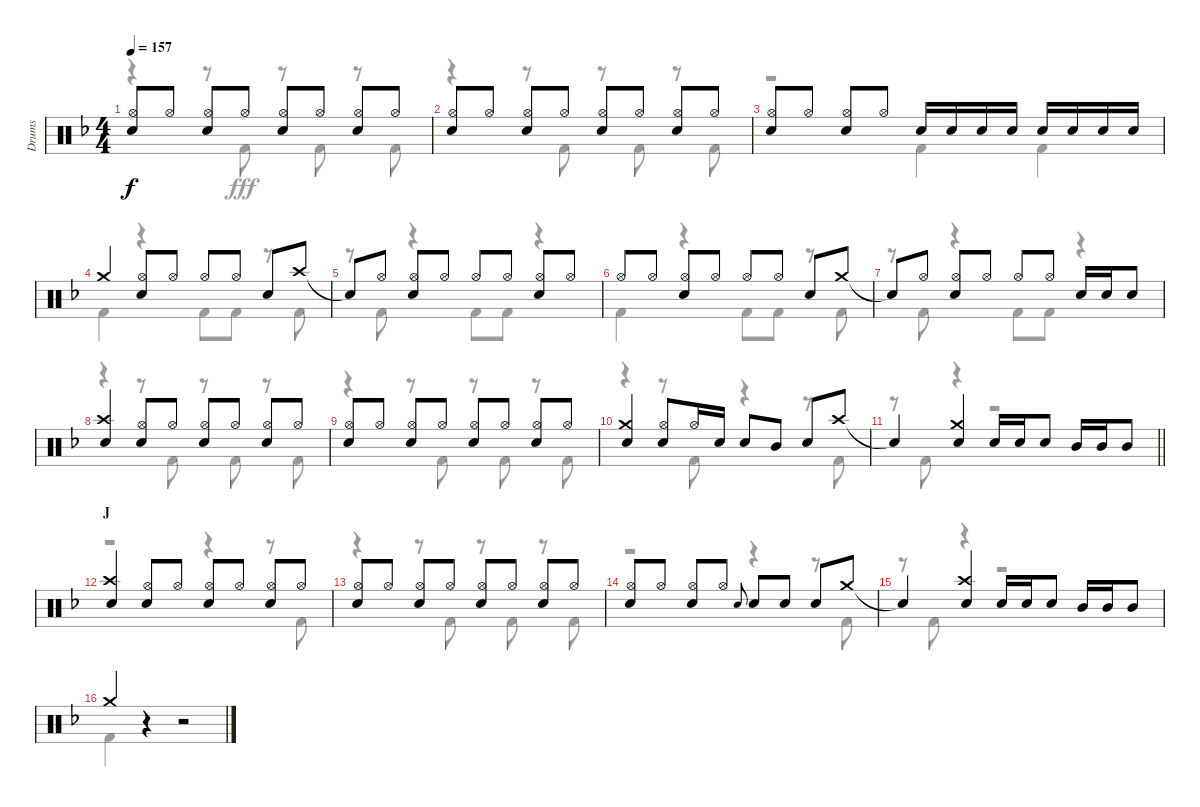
\track ("Drums" "Drums") {instrument percussion}
\staff {score}
\articulation defaults
\voice
\ts (4 4)
\tempo 157
\clef neutral
\ks f
("Hi-Hat (open)" "Snare (hit) 2").8{dy f} "Hi-Hat (open)".8 ("Hi-Hat (open)" "Snare (hit) 2").8 "Hi-Hat (open)".8 ("Hi-Hat (open)" "Snare (hit) 2").8 "Hi-Hat (open)".8 ("Hi-Hat (open)" "Snare (hit) 2").8 "Hi-Hat (open)".8 |
("Hi-Hat (open)" "Snare (hit) 2").8 "Hi-Hat (open)".8 ("Hi-Hat (open)" "Snare (hit) 2").8 "Hi-Hat (open)".8 ("Hi-Hat (open)" "Snare (hit) 2").8 "Hi-Hat (open)".8 ("Hi-Hat (open)" "Snare (hit) 2").8 "Hi-Hat (open)".8 |
("Hi-Hat (open)" "Snare (hit) 2").8 "Hi-Hat (open)".8 ("Hi-Hat (open)" "Snare (hit) 2").8 "Hi-Hat (open)".8 "Snare (hit) 2".16 "Snare (hit) 2".16 "Snare (hit) 2".16 "Snare (hit) 2".16 "Snare (hit) 2".16 "Snare (hit) 2".16 "Snare (hit) 2".16 "Snare (hit) 2".16 |
"Crash medium (hit)".4 ("Hi-Hat (open)" "Snare (hit) 2").8 "Hi-Hat (open)".8 "Hi-Hat (open)".8 "Hi-Hat (open)".8 "Snare (hit) 2".8 "Crash high (hit)".8 |
"Snare (hit)"{t}.8 "Hi-Hat (open)".8 ("Hi-Hat (open)" "Snare (hit) 2").8 "Hi-Hat (open)".8 "Hi-Hat (open)".8 "Hi-Hat (open)".8 ("Hi-Hat (open)" "Snare (hit) 2").8 "Hi-Hat (open)".8 |
"Hi-Hat (open)".8 "Hi-Hat (open)".8 ("Hi-Hat (open)" "Snare (hit) 2").8 "Hi-Hat (open)".8 "Hi-Hat (open)".8 "Hi-Hat (open)".8 "Snare (hit) 2".8 "Crash medium (hit)".8 |
"Snare (hit)"{t}.8 "Hi-Hat (open)".8 ("Hi-Hat (open)" "Snare (hit) 2").8 "Hi-Hat (open)".8 "Hi-Hat (open)".8 "Hi-Hat (open)".8 "Snare (hit) 2".16 "Snare (hit) 2".16 "Snare (hit) 2".8 |
("Crash high (hit)" "Snare (hit) 2").4 ("Hi-Hat (open)" "Snare (hit) 2").8 "Hi-Hat (open)".8 ("Hi-Hat (open)" "Snare (hit) 2").8 "Hi-Hat (open)".8 ("Hi-Hat (open)" "Snare (hit) 2").8 "Hi-Hat (open)".8 |
("Hi-Hat (open)" "Snare (hit) 2").8 "Hi-Hat (open)".8 ("Hi-Hat (open)" "Snare (hit) 2").8 "Hi-Hat (open)".8 ("Hi-Hat (open)" "Snare (hit) 2").8 "Hi-Hat (open)".8 ("Hi-Hat (open)" "Snare (hit) 2").8 "Hi-Hat (open)".8 |
("Crash medium (hit)" "Snare (hit) 2").4 ("Hi-Hat (open)" "Snare (hit) 2").8 "Hi-Hat (open)".16 "Snare (hit) 2".16 "Snare (hit) 2".8 "Mid Tom (hit)".8 "Snare (hit) 2".8 "Crash high (hit)".8 |
\barLineRight lightlight "Snare (hit)"{t}.4
("Crash medium (hit)" "Snare (hit) 2").4 "Snare (hit) 2".16 "Snare (hit) 2".16 "Snare (hit) 2".8 "Mid Tom (hit)".16 "Mid Tom (hit)".16 "Mid Tom (hit)".8 |
\section ("" "J")
("Crash high (hit)" "Snare (hit) 2").4 ("Hi-Hat (open)" "Snare (hit) 2").8 "Hi-Hat (open)".8 ("Hi-Hat (open)" "Snare (hit) 2").8 "Hi-Hat (open)".8 ("Hi-Hat (open)" "Snare (hit) 2").8 "Hi-Hat (open)".8 |
("Hi-Hat (open)" "Snare (hit) 2").8 "Hi-Hat (open)".8 ("Hi-Hat (open)" "Snare (hit) 2").8 "Hi-Hat (open)".8 ("Hi-Hat (open)" "Snare (hit) 2").8 "Hi-Hat (open)".8 ("Hi-Hat (open)" "Snare (hit) 2").8 "Hi-Hat (open)".8 |
("Hi-Hat (open)" "Snare (hit) 2").8 "Hi-Hat (open)".8 ("Hi-Hat (open)" "Snare (hit) 2").8 "Hi-Hat (open)".8 "Snare (hit) 2".8{gr onbeat} "Snare (hit) 2".8 "Snare (hit) 2".8 "Snare (hit) 2".8 "Crash medium (hit)".8 |
"Snare (hit)"{t}.4 ("Crash high (hit)" "Snare (hit) 2").4 "Snare (hit) 2".16 "Snare (hit) 2".16 "Snare (hit) 2".8 "Mid Tom (hit)".16 "Mid Tom (hit)".16 "Mid Tom (hit)".8 |
"Crash medium (hit)".4 r.4 r.2
\voice
\clef neutral
\ottava regular
\simile none
\ks f
r.4{dy fff} r.8 "Kick (hit) 2".8 r.8 "Kick (hit) 2".8 r.8 "Kick (hit) 2".8 |
r.4 r.8 "Kick (hit) 2".8 r.8 "Kick (hit) 2".8 r.8 "Kick (hit) 2".8 |
r.2 "Kick (hit) 2".4 "Kick (hit) 2".4 |
"Kick (hit) 2".4 r.4 "Kick (hit) 2".8 "Kick (hit) 2".8 r.8 "Kick (hit) 2".8 |
r.8 "Kick (hit) 2".8 r.4 "Kick (hit) 2".8 "Kick (hit) 2".8 r.4 |
"Kick (hit) 2".4 r.4 "Kick (hit) 2".8 "Kick (hit) 2".8 r.8 "Kick (hit) 2".8 |
r.8 "Kick (hit) 2".8 r.4 "Kick (hit) 2".8 "Kick (hit) 2".8 r.4 |
r.4 r.8 "Kick (hit) 2".8 r.8 "Kick (hit) 2".8 r.8 "Kick (hit) 2".8 |
r.4 r.8 "Kick (hit) 2".8 r.8 "Kick (hit) 2".8 r.8 "Kick (hit) 2".8 |
r.4 r.8 "Kick (hit) 2".8 r.4 r.8 "Kick (hit) 2".8 |
\barLineRight lightlight
r.8 "Kick (hit) 2".8 r.4 r.2 |
r.2 r.4 r.8 "Kick (hit) 2".8 |
r.4 r.8 "Kick (hit) 2".8 r.8 "Kick (hit) 2".8 r.8 "Kick (hit) 2".8 |
r.2 r.4 r.8 "Kick (hit) 2".8 |
r.8 "Kick (hit) 2".8 r.4 r.2 |
"Kick (hit) 2".4 r.4 r.2
